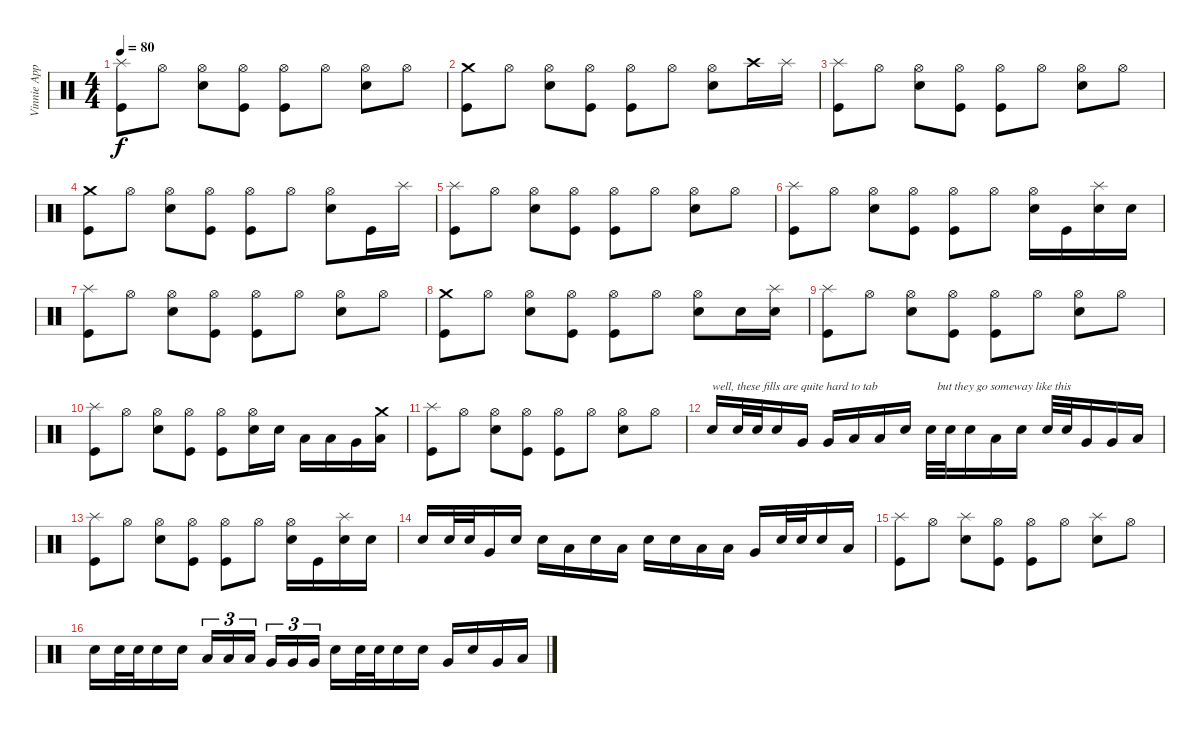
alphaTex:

\track ("Vinnie Appice (drums)" "Vinnie App") {instrument percussion}
\staff {score}
\articulation defaults
\ts (4 4)
\tempo 80
\clef neutral
\ks c
("Splash (hit)" "Kick (hit)").8{dy f} "Hi-Hat (open)".8 ("Hi-Hat (open)" "Snare (hit) 2").8 ("Hi-Hat (open)" "Kick (hit)").8 ("Hi-Hat (open)" "Kick (hit)").8 "Hi-Hat (open)".8 ("Hi-Hat (open)" "Snare (hit) 2").8 "Hi-Hat (open)".8 |
("Crash medium (hit)" "Kick (hit)").8 "Hi-Hat (open)".8 ("Hi-Hat (open)" "Snare (hit) 2").8 ("Hi-Hat (open)" "Kick (hit)").8 ("Hi-Hat (open)" "Kick (hit)").8 "Hi-Hat (open)".8 ("Hi-Hat (open)" "Snare (hit) 2").8 "Crash high (hit)".16 "Splash (hit)".16 |
("Splash (hit)" "Kick (hit)").8 "Hi-Hat (open)".8 ("Hi-Hat (open)" "Snare (hit) 2").8 ("Hi-Hat (open)" "Kick (hit)").8 ("Hi-Hat (open)" "Kick (hit)").8 "Hi-Hat (open)".8 ("Hi-Hat (open)" "Snare (hit) 2").8 "Hi-Hat (open)".8 |
("Crash medium (hit)" "Kick (hit)").8 "Hi-Hat (open)".8 ("Hi-Hat (open)" "Snare (hit) 2").8 ("Hi-Hat (open)" "Kick (hit)").8 ("Hi-Hat (open)" "Kick (hit)").8 "Hi-Hat (open)".8 ("Hi-Hat (open)" "Snare (hit) 2").8 "Kick (hit)".16 "Splash (hit)".16 |
("Splash (hit)" "Kick (hit)").8 "Hi-Hat (open)".8 ("Hi-Hat (open)" "Snare (hit) 2").8 ("Hi-Hat (open)" "Kick (hit)").8 ("Hi-Hat (open)" "Kick (hit)").8 "Hi-Hat (open)".8 ("Hi-Hat (open)" "Snare (hit) 2").8 "Hi-Hat (open)".8 |
("Splash (hit)" "Kick (hit)").8 "Hi-Hat (open)".8 ("Hi-Hat (open)" "Snare (hit) 2").8 ("Hi-Hat (open)" "Kick (hit)").8 ("Hi-Hat (open)" "Kick (hit)").8 "Hi-Hat (open)".8 ("Hi-Hat (open)" "Snare (hit) 2").16 "Kick (hit)".16 ("Splash (hit)" "Snare (hit) 2").16 "Snare (hit) 2".16 |
("Splash (hit)" "Kick (hit)").8 "Hi-Hat (open)".8 ("Hi-Hat (open)" "Snare (hit) 2").8 ("Hi-Hat (open)" "Kick (hit)").8 ("Hi-Hat (open)" "Kick (hit)").8 "Hi-Hat (open)".8 ("Hi-Hat (open)" "Snare (hit) 2").8 "Hi-Hat (open)".8 |
("Crash medium (hit)" "Kick (hit)").8 "Hi-Hat (open)".8 ("Hi-Hat (open)" "Snare (hit) 2").8 ("Hi-Hat (open)" "Kick (hit)").8 ("Hi-Hat (open)" "Kick (hit)").8 "Hi-Hat (open)".8 ("Hi-Hat (open)" "Snare (hit) 2").8 "Snare (hit) 2".16 ("Splash (hit)" "Snare (hit) 2").16 |
("Splash (hit)" "Kick (hit)").8 "Hi-Hat (open)".8 ("Hi-Hat (open)" "Snare (hit) 2").8 ("Hi-Hat (open)" "Kick (hit)").8 ("Hi-Hat (open)" "Kick (hit)").8 "Hi-Hat (open)".8 ("Hi-Hat (open)" "Snare (hit) 2").8 "Hi-Hat (open)".8 |
("Splash (hit)" "Kick (hit)").8 "Hi-Hat (open)".8 ("Hi-Hat (open)" "Snare (hit) 2").8 ("Hi-Hat (open)" "Kick (hit)").8 ("Hi-Hat (open)" "Kick (hit)").8 ("Hi-Hat (open)" "Snare (hit) 2").16 "Snare (hit) 2".16 "Low Tom (hit)".16 "Low Tom (hit)".16 "Very Low Tom (hit)".16 ("Crash medium (hit)" "Low Floor Tom (hit)").16 |
("Splash (hit)" "Kick (hit)").8 "Hi-Hat (open)".8 ("Hi-Hat (open)" "Snare (hit) 2").8 ("Hi-Hat (open)" "Kick (hit)").8 ("Hi-Hat (open)" "Kick (hit)").8 "Hi-Hat (open)".8 ("Hi-Hat (open)" "Snare (hit) 2").8 "Hi-Hat (open)".8 |
"Snare (hit) 2".16{txt "well, these fills are quite hard to tab"} "Snare (hit) 2".32 "Snare (hit) 2".32 "Snare (hit) 2".16 "Very Low Tom (hit)".16 "Very Low Tom (hit)".16 "Low Floor Tom (hit)".16 "Low Floor Tom (hit)".16 "Snare (hit) 2".16 "Snare (hit) 2".32{txt "  but they go someway like this"} "Snare (hit) 2".32 "Snare (hit) 2".16 "Low Tom (hit)".16 "Snare (hit) 2".16 "Snare (hit) 2".32 "Snare (hit) 2".32 "Very Low Tom (hit)".16 "Very Low Tom (hit)".16 "Low Floor Tom (hit)".16 |
("Splash (hit)" "Kick (hit)").8 "Hi-Hat (open)".8 ("Hi-Hat (open)" "Snare (hit) 2").8 ("Hi-Hat (open)" "Kick (hit)").8 ("Hi-Hat (open)" "Kick (hit)").8 "Hi-Hat (open)".8 ("Hi-Hat (open)" "Snare (hit) 2").16 "Kick (hit)".16 ("Splash (hit)" "Snare (hit) 2").16 "Snare (hit) 2".16 |
"Snare (hit) 2".16 "Snare (hit) 2".32 "Snare (hit) 2".32 "Very Low Tom (hit)".16 "Snare (hit) 2".16 "Snare (hit) 2".16 "Low Floor Tom (hit)".16 "Snare (hit) 2".16 "Low Tom (hit)".16 "Snare (hit) 2".16 "Snare (hit) 2".16 "Low Tom (hit)".16 "Low Tom (hit)".16 "Very Low Tom (hit)".16 "Snare (hit) 2".32 "Snare (hit) 2".32 "Snare (hit) 2".16 "Low Floor Tom (hit)".16 |
("Splash (hit)" "Kick (hit)").8 "Hi-Hat (open)".8 ("Splash (hit)" "Snare (hit) 2").8 ("Hi-Hat (open)" "Kick (hit)").8 ("Hi-Hat (open)" "Kick (hit)").8 "Hi-Hat (open)".8 ("Splash (hit)" "Snare (hit) 2").8 "Hi-Hat (open)".8 |
"Snare (hit) 2".16 "Snare (hit) 2".32 "Snare (hit) 2".32 "Snare (hit) 2".16 "Snare (hit) 2".16 "Low Tom (hit)".16{tu (3 2)} "Low Tom (hit)".16{tu (3 2)} "Low Tom (hit)".16{tu (3 2)} "Very Low Tom (hit)".16{tu (3 2)} "Very Low Tom (hit)".16{tu (3 2)} "Very Low Tom (hit)".16{tu (3 2)} "Snare (hit) 2".16 "Snare (hit) 2".32 "Snare (hit) 2".32 "Snare (hit) 2".16 "Snare (hit) 2".16 "Very Low Tom (hit)".16 "Snare (hit) 2".16 "Very Low Tom (hit)".16 "Low Floor Tom (hit)".16
